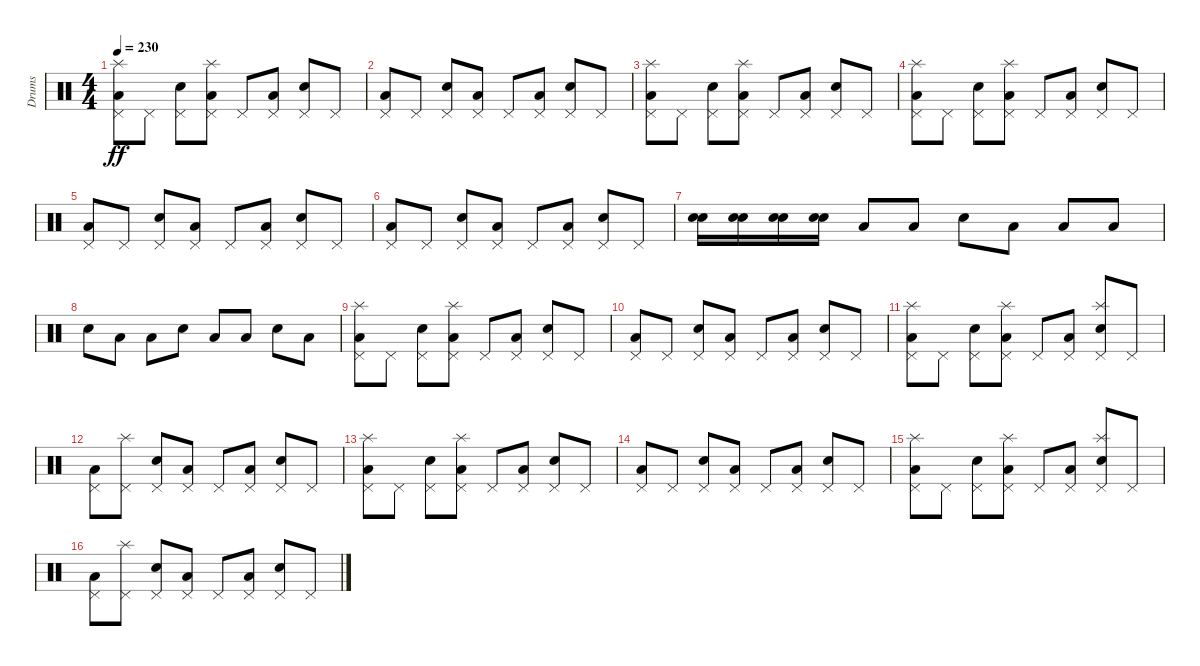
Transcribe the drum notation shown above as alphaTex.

\track ("Drums" "Drums") {instrument percussion}
\staff {score}
\articulation defaults
\ts (4 4)
\tempo 230
\clef neutral
\ks c
("Low Floor Tom (hit)" "Pedal Hi-Hat (hit)" "Splash (hit)").8{dy ff} "Pedal Hi-Hat (hit)".8 ("Electric Snare (hit)" "Pedal Hi-Hat (hit)").8 ("Low Floor Tom (hit)" "Pedal Hi-Hat (hit)" "Splash (hit)").8 "Pedal Hi-Hat (hit)".8 ("Low Floor Tom (hit)" "Pedal Hi-Hat (hit)").8 ("Electric Snare (hit)" "Pedal Hi-Hat (hit)").8 "Pedal Hi-Hat (hit)".8 |
("Low Floor Tom (hit)" "Pedal Hi-Hat (hit)").8 "Pedal Hi-Hat (hit)".8 ("Electric Snare (hit)" "Pedal Hi-Hat (hit)").8 ("Low Floor Tom (hit)" "Pedal Hi-Hat (hit)").8 "Pedal Hi-Hat (hit)".8 ("Low Floor Tom (hit)" "Pedal Hi-Hat (hit)").8 ("Electric Snare (hit)" "Pedal Hi-Hat (hit)").8 "Pedal Hi-Hat (hit)".8 |
("Low Floor Tom (hit)" "Pedal Hi-Hat (hit)" "Splash (hit)").8 "Pedal Hi-Hat (hit)".8 ("Electric Snare (hit)" "Pedal Hi-Hat (hit)").8 ("Low Floor Tom (hit)" "Pedal Hi-Hat (hit)" "Splash (hit)").8 "Pedal Hi-Hat (hit)".8 ("Low Floor Tom (hit)" "Pedal Hi-Hat (hit)").8 ("Electric Snare (hit)" "Pedal Hi-Hat (hit)").8 "Pedal Hi-Hat (hit)".8 |
("Low Floor Tom (hit)" "Pedal Hi-Hat (hit)" "Splash (hit)").8 "Pedal Hi-Hat (hit)".8 ("Electric Snare (hit)" "Pedal Hi-Hat (hit)").8 ("Low Floor Tom (hit)" "Pedal Hi-Hat (hit)" "Splash (hit)").8 "Pedal Hi-Hat (hit)".8 ("Low Floor Tom (hit)" "Pedal Hi-Hat (hit)").8 ("Electric Snare (hit)" "Pedal Hi-Hat (hit)").8 "Pedal Hi-Hat (hit)".8 |
("Low Floor Tom (hit)" "Pedal Hi-Hat (hit)").8 "Pedal Hi-Hat (hit)".8 ("Electric Snare (hit)" "Pedal Hi-Hat (hit)").8 ("Low Floor Tom (hit)" "Pedal Hi-Hat (hit)").8 "Pedal Hi-Hat (hit)".8 ("Low Floor Tom (hit)" "Pedal Hi-Hat (hit)").8 ("Electric Snare (hit)" "Pedal Hi-Hat (hit)").8 "Pedal Hi-Hat (hit)".8 |
("Low Floor Tom (hit)" "Pedal Hi-Hat (hit)").8 "Pedal Hi-Hat (hit)".8 ("Electric Snare (hit)" "Pedal Hi-Hat (hit)").8 ("Low Floor Tom (hit)" "Pedal Hi-Hat (hit)").8 "Pedal Hi-Hat (hit)".8 ("Low Floor Tom (hit)" "Pedal Hi-Hat (hit)").8 ("Electric Snare (hit)" "Pedal Hi-Hat (hit)").8 "Pedal Hi-Hat (hit)".8 |
("Electric Snare (hit)" "Electric Snare (hit)").16 ("Electric Snare (hit)" "Electric Snare (hit)").16 ("Electric Snare (hit)" "Electric Snare (hit)").16 ("Electric Snare (hit)" "Electric Snare (hit)").16 "Low Floor Tom (hit)".8 "Low Floor Tom (hit)".8 "Electric Snare (hit)".8 "Low Floor Tom (hit)".8 "Low Floor Tom (hit)".8 "Low Floor Tom (hit)".8 |
"Electric Snare (hit)".8 "Low Floor Tom (hit)".8 "Low Floor Tom (hit)".8 "Electric Snare (hit)".8 "Low Floor Tom (hit)".8 "Low Floor Tom (hit)".8 "Electric Snare (hit)".8 "Low Floor Tom (hit)".8 |
("Low Floor Tom (hit)" "Pedal Hi-Hat (hit)" "Splash (hit)").8 "Pedal Hi-Hat (hit)".8 ("Electric Snare (hit)" "Pedal Hi-Hat (hit)").8 ("Low Floor Tom (hit)" "Pedal Hi-Hat (hit)" "Splash (hit)").8 "Pedal Hi-Hat (hit)".8 ("Low Floor Tom (hit)" "Pedal Hi-Hat (hit)").8 ("Electric Snare (hit)" "Pedal Hi-Hat (hit)").8 "Pedal Hi-Hat (hit)".8 |
("Low Floor Tom (hit)" "Pedal Hi-Hat (hit)").8 "Pedal Hi-Hat (hit)".8 ("Electric Snare (hit)" "Pedal Hi-Hat (hit)").8 ("Low Floor Tom (hit)" "Pedal Hi-Hat (hit)").8 "Pedal Hi-Hat (hit)".8 ("Low Floor Tom (hit)" "Pedal Hi-Hat (hit)").8 ("Electric Snare (hit)" "Pedal Hi-Hat (hit)").8 "Pedal Hi-Hat (hit)".8 |
("Low Floor Tom (hit)" "Pedal Hi-Hat (hit)" "Splash (hit)").8 "Pedal Hi-Hat (hit)".8 ("Electric Snare (hit)" "Pedal Hi-Hat (hit)").8 ("Low Floor Tom (hit)" "Pedal Hi-Hat (hit)" "Splash (hit)").8 "Pedal Hi-Hat (hit)".8 ("Low Floor Tom (hit)" "Pedal Hi-Hat (hit)").8 ("Electric Snare (hit)" "Pedal Hi-Hat (hit)" "Splash (hit)").8 "Pedal Hi-Hat (hit)".8 |
("Low Floor Tom (hit)" "Pedal Hi-Hat (hit)").8 ("Pedal Hi-Hat (hit)" "Splash (hit)").8 ("Electric Snare (hit)" "Pedal Hi-Hat (hit)").8 ("Low Floor Tom (hit)" "Pedal Hi-Hat (hit)").8 "Pedal Hi-Hat (hit)".8 ("Low Floor Tom (hit)" "Pedal Hi-Hat (hit)").8 ("Electric Snare (hit)" "Pedal Hi-Hat (hit)").8 "Pedal Hi-Hat (hit)".8 |
("Low Floor Tom (hit)" "Pedal Hi-Hat (hit)" "Splash (hit)").8 "Pedal Hi-Hat (hit)".8 ("Electric Snare (hit)" "Pedal Hi-Hat (hit)").8 ("Low Floor Tom (hit)" "Pedal Hi-Hat (hit)" "Splash (hit)").8 "Pedal Hi-Hat (hit)".8 ("Low Floor Tom (hit)" "Pedal Hi-Hat (hit)").8 ("Electric Snare (hit)" "Pedal Hi-Hat (hit)").8 "Pedal Hi-Hat (hit)".8 |
("Low Floor Tom (hit)" "Pedal Hi-Hat (hit)").8 "Pedal Hi-Hat (hit)".8 ("Electric Snare (hit)" "Pedal Hi-Hat (hit)").8 ("Low Floor Tom (hit)" "Pedal Hi-Hat (hit)").8 "Pedal Hi-Hat (hit)".8 ("Low Floor Tom (hit)" "Pedal Hi-Hat (hit)").8 ("Electric Snare (hit)" "Pedal Hi-Hat (hit)").8 "Pedal Hi-Hat (hit)".8 |
("Low Floor Tom (hit)" "Pedal Hi-Hat (hit)" "Splash (hit)").8 "Pedal Hi-Hat (hit)".8 ("Electric Snare (hit)" "Pedal Hi-Hat (hit)").8 ("Low Floor Tom (hit)" "Pedal Hi-Hat (hit)" "Splash (hit)").8 "Pedal Hi-Hat (hit)".8 ("Low Floor Tom (hit)" "Pedal Hi-Hat (hit)").8 ("Electric Snare (hit)" "Pedal Hi-Hat (hit)" "Splash (hit)").8 "Pedal Hi-Hat (hit)".8 |
("Low Floor Tom (hit)" "Pedal Hi-Hat (hit)").8 ("Pedal Hi-Hat (hit)" "Splash (hit)").8 ("Electric Snare (hit)" "Pedal Hi-Hat (hit)").8 ("Low Floor Tom (hit)" "Pedal Hi-Hat (hit)").8 "Pedal Hi-Hat (hit)".8 ("Low Floor Tom (hit)" "Pedal Hi-Hat (hit)").8 ("Electric Snare (hit)" "Pedal Hi-Hat (hit)").8 "Pedal Hi-Hat (hit)".8
